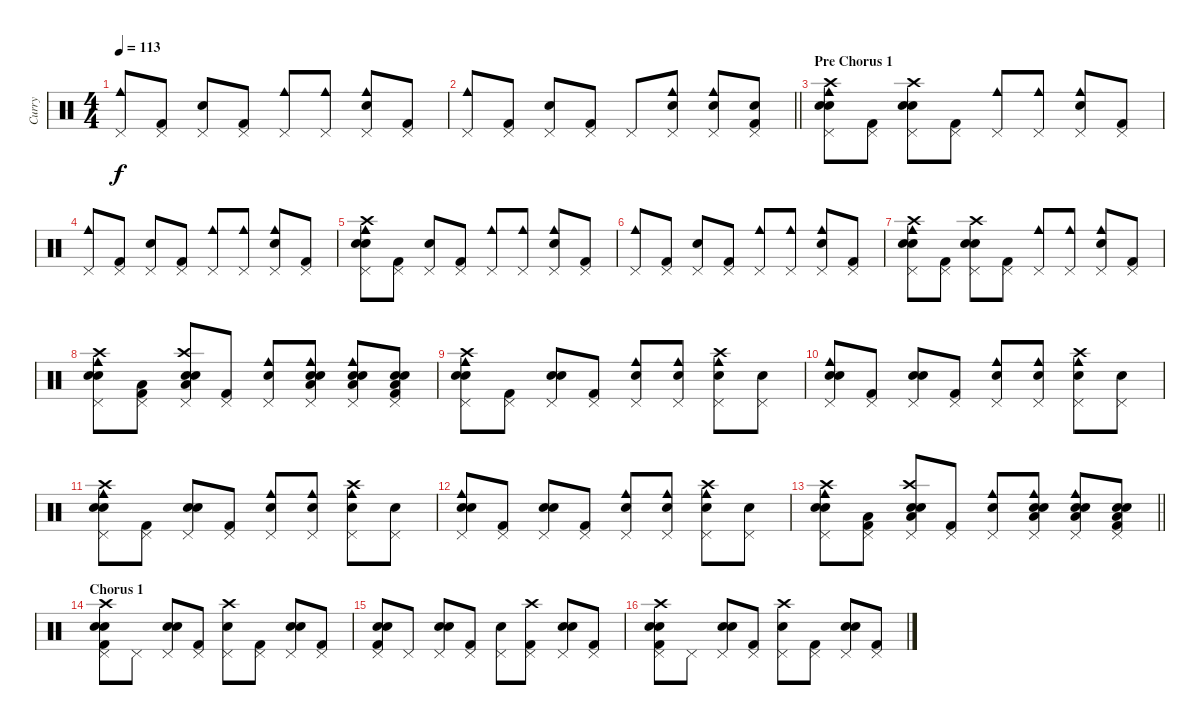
\track ("Curry" "Curry") {instrument percussion}
\staff {score}
\articulation defaults
\ts (4 4)
\tempo 113
\clef neutral
\ks c
("Pedal Hi-Hat (hit)" "Cowbell medium (hit)").8{dy f} ("Pedal Hi-Hat (hit)" "Kick (hit) 2").8 ("Pedal Hi-Hat (hit)" "Electric Snare (hit)").8 ("Pedal Hi-Hat (hit)" "Kick (hit) 2").8 ("Pedal Hi-Hat (hit)" "Cowbell medium (hit)").8 ("Pedal Hi-Hat (hit)" "Cowbell medium (hit)").8 ("Pedal Hi-Hat (hit)" "Cowbell medium (hit)" "Electric Snare (hit)").8 ("Pedal Hi-Hat (hit)" "Kick (hit) 2").8 |
\barLineRight lightlight
("Pedal Hi-Hat (hit)" "Cowbell medium (hit)").8 ("Pedal Hi-Hat (hit)" "Kick (hit) 2").8 ("Pedal Hi-Hat (hit)" "Electric Snare (hit)").8 ("Pedal Hi-Hat (hit)" "Kick (hit) 2").8 "Pedal Hi-Hat (hit)".8 ("Pedal Hi-Hat (hit)" "Cowbell medium (hit)" "Electric Snare (hit)").8 ("Pedal Hi-Hat (hit)" "Cowbell medium (hit)" "Electric Snare (hit)").8 ("Pedal Hi-Hat (hit)" "Kick (hit) 2" "Electric Snare (hit)").8 |
\section ("" "Pre Chorus 1")
("Pedal Hi-Hat (hit)" "Cowbell medium (hit)" "Electric Snare (hit)" "Snare (hit) 2" "Crash high (hit)").8 ("Pedal Hi-Hat (hit)" "Kick (hit) 2").8 ("Pedal Hi-Hat (hit)" "Electric Snare (hit)" "Snare (hit) 2" "Crash high (hit)").8 ("Pedal Hi-Hat (hit)" "Kick (hit) 2").8 ("Pedal Hi-Hat (hit)" "Cowbell medium (hit)").8 ("Pedal Hi-Hat (hit)" "Cowbell medium (hit)").8 ("Pedal Hi-Hat (hit)" "Cowbell medium (hit)" "Electric Snare (hit)").8 ("Pedal Hi-Hat (hit)" "Kick (hit) 2").8 |
("Pedal Hi-Hat (hit)" "Cowbell medium (hit)").8 ("Pedal Hi-Hat (hit)" "Kick (hit) 2").8 ("Pedal Hi-Hat (hit)" "Electric Snare (hit)").8 ("Pedal Hi-Hat (hit)" "Kick (hit) 2").8 ("Pedal Hi-Hat (hit)" "Cowbell medium (hit)").8 ("Pedal Hi-Hat (hit)" "Cowbell medium (hit)").8 ("Pedal Hi-Hat (hit)" "Cowbell medium (hit)" "Electric Snare (hit)").8 ("Pedal Hi-Hat (hit)" "Kick (hit) 2").8 |
("Pedal Hi-Hat (hit)" "Cowbell medium (hit)" "Electric Snare (hit)" "Snare (hit) 2" "Crash high (hit)").8 ("Pedal Hi-Hat (hit)" "Kick (hit) 2").8 ("Pedal Hi-Hat (hit)" "Electric Snare (hit)").8 ("Pedal Hi-Hat (hit)" "Kick (hit) 2").8 ("Pedal Hi-Hat (hit)" "Cowbell medium (hit)").8 ("Pedal Hi-Hat (hit)" "Cowbell medium (hit)").8 ("Pedal Hi-Hat (hit)" "Cowbell medium (hit)" "Electric Snare (hit)").8 ("Pedal Hi-Hat (hit)" "Kick (hit) 2").8 |
("Pedal Hi-Hat (hit)" "Cowbell medium (hit)").8 ("Pedal Hi-Hat (hit)" "Kick (hit) 2").8 ("Pedal Hi-Hat (hit)" "Electric Snare (hit)").8 ("Pedal Hi-Hat (hit)" "Kick (hit) 2").8 ("Pedal Hi-Hat (hit)" "Cowbell medium (hit)").8 ("Pedal Hi-Hat (hit)" "Cowbell medium (hit)").8 ("Pedal Hi-Hat (hit)" "Cowbell medium (hit)" "Electric Snare (hit)").8 ("Pedal Hi-Hat (hit)" "Kick (hit) 2").8 |
("Pedal Hi-Hat (hit)" "Cowbell medium (hit)" "Electric Snare (hit)" "Snare (hit) 2" "Crash high (hit)").8 ("Pedal Hi-Hat (hit)" "Kick (hit) 2").8 ("Pedal Hi-Hat (hit)" "Electric Snare (hit)" "Snare (hit) 2" "Crash high (hit)").8 ("Pedal Hi-Hat (hit)" "Kick (hit) 2").8 ("Pedal Hi-Hat (hit)" "Cowbell medium (hit)").8 ("Pedal Hi-Hat (hit)" "Cowbell medium (hit)").8 ("Pedal Hi-Hat (hit)" "Cowbell medium (hit)" "Electric Snare (hit)").8 ("Pedal Hi-Hat (hit)" "Kick (hit) 2").8 |
("Pedal Hi-Hat (hit)" "Cowbell medium (hit)" "Electric Snare (hit)" "Snare (hit) 2" "Crash high (hit)").8 ("Pedal Hi-Hat (hit)" "Kick (hit) 2" "Low Tom (hit)").8 ("Pedal Hi-Hat (hit)" "Electric Snare (hit)" "Snare (hit) 2" "Low Tom (hit)" "Crash high (hit)").8 ("Pedal Hi-Hat (hit)" "Kick (hit) 2").8 ("Pedal Hi-Hat (hit)" "Cowbell medium (hit)" "Snare (hit) 2").8 ("Pedal Hi-Hat (hit)" "Cowbell medium (hit)" "Electric Snare (hit)" "Snare (hit) 2" "Low Tom (hit)").8 ("Pedal Hi-Hat (hit)" "Cowbell medium (hit)" "Electric Snare (hit)" "Snare (hit) 2" "Low Tom (hit)").8 ("Pedal Hi-Hat (hit)" "Kick (hit) 2" "Electric Snare (hit)" "Snare (hit) 2" "Low Tom (hit)").8 |
("Pedal Hi-Hat (hit)" "Cowbell medium (hit)" "Electric Snare (hit)" "Snare (hit) 2" "Crash high (hit)").8 ("Pedal Hi-Hat (hit)" "Kick (hit) 2").8 ("Pedal Hi-Hat (hit)" "Electric Snare (hit)" "Snare (hit) 2").8 ("Pedal Hi-Hat (hit)" "Kick (hit) 2").8 ("Pedal Hi-Hat (hit)" "Cowbell medium (hit)" "Snare (hit) 2").8 ("Pedal Hi-Hat (hit)" "Cowbell medium (hit)" "Snare (hit) 2").8 ("Pedal Hi-Hat (hit)" "Cowbell medium (hit)" "Electric Snare (hit)" "Crash high (hit)").8 ("Pedal Hi-Hat (hit)" "Snare (hit) 2").8 |
("Pedal Hi-Hat (hit)" "Cowbell medium (hit)" "Electric Snare (hit)" "Snare (hit) 2").8 ("Pedal Hi-Hat (hit)" "Kick (hit) 2").8 ("Pedal Hi-Hat (hit)" "Electric Snare (hit)" "Snare (hit) 2").8 ("Pedal Hi-Hat (hit)" "Kick (hit) 2").8 ("Pedal Hi-Hat (hit)" "Cowbell medium (hit)" "Snare (hit) 2").8 ("Pedal Hi-Hat (hit)" "Cowbell medium (hit)" "Snare (hit) 2").8 ("Pedal Hi-Hat (hit)" "Cowbell medium (hit)" "Electric Snare (hit)" "Crash high (hit)").8 ("Pedal Hi-Hat (hit)" "Snare (hit) 2").8 |
("Pedal Hi-Hat (hit)" "Cowbell medium (hit)" "Electric Snare (hit)" "Snare (hit) 2" "Crash high (hit)").8 ("Pedal Hi-Hat (hit)" "Kick (hit) 2").8 ("Pedal Hi-Hat (hit)" "Electric Snare (hit)" "Snare (hit) 2").8 ("Pedal Hi-Hat (hit)" "Kick (hit) 2").8 ("Pedal Hi-Hat (hit)" "Cowbell medium (hit)" "Snare (hit) 2").8 ("Pedal Hi-Hat (hit)" "Cowbell medium (hit)" "Snare (hit) 2").8 ("Pedal Hi-Hat (hit)" "Cowbell medium (hit)" "Electric Snare (hit)" "Crash high (hit)").8 ("Pedal Hi-Hat (hit)" "Snare (hit) 2").8 |
("Pedal Hi-Hat (hit)" "Cowbell medium (hit)" "Electric Snare (hit)" "Snare (hit) 2").8 ("Pedal Hi-Hat (hit)" "Kick (hit) 2").8 ("Pedal Hi-Hat (hit)" "Electric Snare (hit)" "Snare (hit) 2").8 ("Pedal Hi-Hat (hit)" "Kick (hit) 2").8 ("Pedal Hi-Hat (hit)" "Cowbell medium (hit)" "Snare (hit) 2").8 ("Pedal Hi-Hat (hit)" "Cowbell medium (hit)" "Snare (hit) 2").8 ("Pedal Hi-Hat (hit)" "Cowbell medium (hit)" "Electric Snare (hit)" "Crash high (hit)").8 ("Pedal Hi-Hat (hit)" "Snare (hit) 2").8 |
\barLineRight lightlight
("Pedal Hi-Hat (hit)" "Cowbell medium (hit)" "Electric Snare (hit)" "Snare (hit) 2" "Crash high (hit)").8 ("Pedal Hi-Hat (hit)" "Kick (hit) 2" "Low Tom (hit)").8 ("Pedal Hi-Hat (hit)" "Electric Snare (hit)" "Snare (hit) 2" "Low Tom (hit)" "Crash high (hit)").8 ("Pedal Hi-Hat (hit)" "Kick (hit) 2").8 ("Pedal Hi-Hat (hit)" "Cowbell medium (hit)" "Snare (hit) 2").8 ("Pedal Hi-Hat (hit)" "Cowbell medium (hit)" "Electric Snare (hit)" "Snare (hit) 2" "Low Tom (hit)").8 ("Pedal Hi-Hat (hit)" "Cowbell medium (hit)" "Electric Snare (hit)" "Snare (hit) 2" "Low Tom (hit)").8 ("Pedal Hi-Hat (hit)" "Kick (hit) 2" "Electric Snare (hit)" "Snare (hit) 2" "Low Tom (hit)").8 |
\section ("" "Chorus 1")
("Pedal Hi-Hat (hit)" "Kick (hit) 2" "Electric Snare (hit)" "Snare (hit) 2" "Crash high (hit)").8 "Pedal Hi-Hat (hit)".8 ("Pedal Hi-Hat (hit)" "Electric Snare (hit)" "Snare (hit) 2").8 ("Pedal Hi-Hat (hit)" "Kick (hit) 2").8 ("Pedal Hi-Hat (hit)" "Snare (hit) 2" "Crash high (hit)").8 ("Pedal Hi-Hat (hit)" "Kick (hit) 2").8 ("Pedal Hi-Hat (hit)" "Electric Snare (hit)" "Snare (hit) 2").8 ("Pedal Hi-Hat (hit)" "Kick (hit) 2").8 |
("Pedal Hi-Hat (hit)" "Kick (hit) 2" "Electric Snare (hit)" "Snare (hit) 2").8 "Pedal Hi-Hat (hit)".8 ("Pedal Hi-Hat (hit)" "Electric Snare (hit)" "Snare (hit) 2").8 ("Pedal Hi-Hat (hit)" "Kick (hit) 2").8 ("Pedal Hi-Hat (hit)" "Snare (hit) 2").8 ("Pedal Hi-Hat (hit)" "Kick (hit) 2" "Crash high (hit)").8 ("Pedal Hi-Hat (hit)" "Electric Snare (hit)" "Snare (hit) 2").8 ("Pedal Hi-Hat (hit)" "Kick (hit) 2").8 |
("Pedal Hi-Hat (hit)" "Kick (hit) 2" "Electric Snare (hit)" "Snare (hit) 2" "Crash high (hit)").8 "Pedal Hi-Hat (hit)".8 ("Pedal Hi-Hat (hit)" "Electric Snare (hit)" "Snare (hit) 2").8 ("Pedal Hi-Hat (hit)" "Kick (hit) 2").8 ("Pedal Hi-Hat (hit)" "Snare (hit) 2" "Crash high (hit)").8 ("Pedal Hi-Hat (hit)" "Kick (hit) 2").8 ("Pedal Hi-Hat (hit)" "Electric Snare (hit)" "Snare (hit) 2").8 ("Pedal Hi-Hat (hit)" "Kick (hit) 2").8
